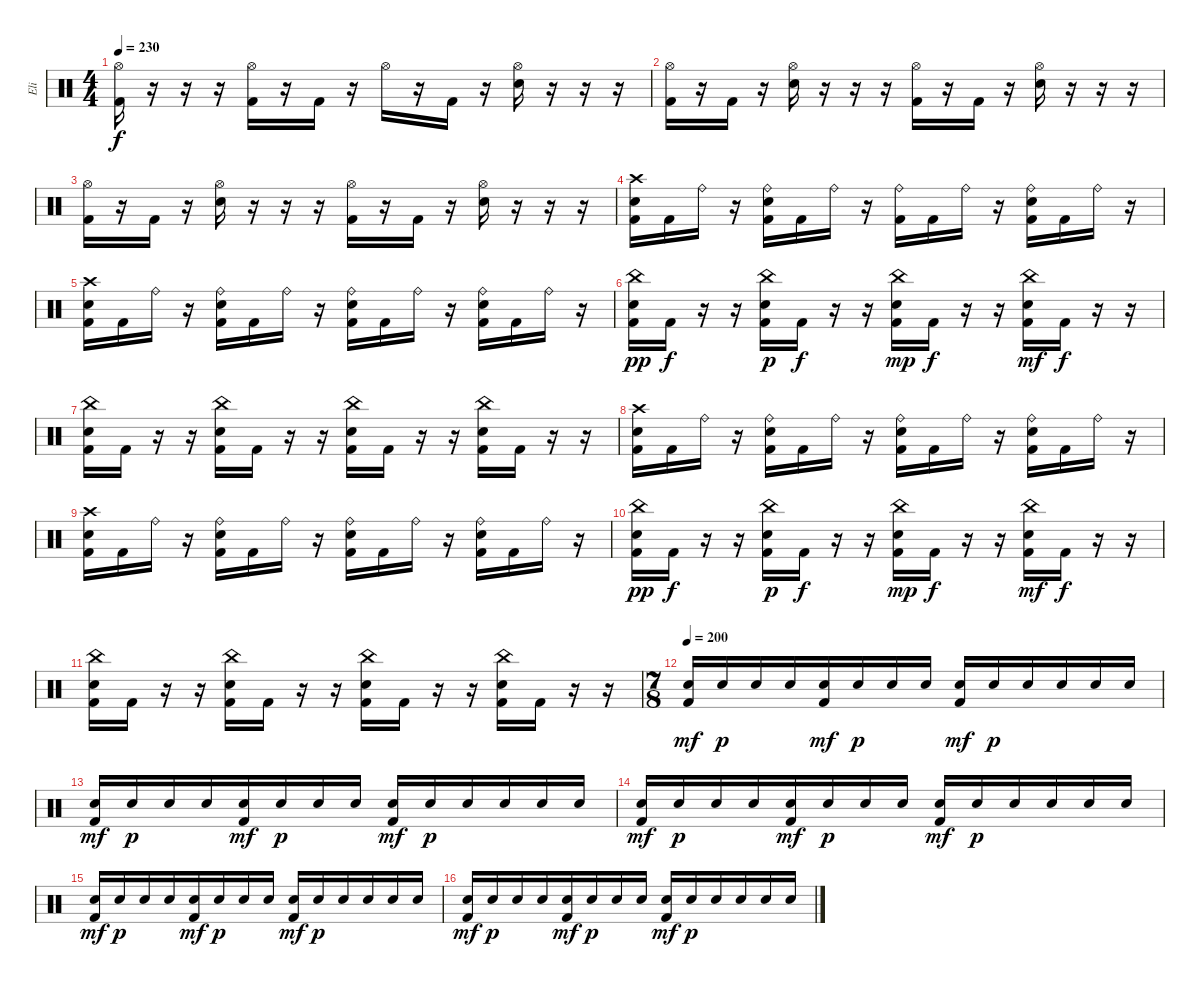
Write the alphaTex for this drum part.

\track ("Eli" "Eli") {instrument percussion}
\staff {score}
\articulation defaults
\ts (4 4)
\tempo 230
\clef neutral
\ks c
("Hi-Hat (open)" "Kick (hit) 2").16{dy f} r.16 r.16 r.16 ("Hi-Hat (open)" "Kick (hit) 2").16 r.16 "Kick (hit) 2".16 r.16 "Hi-Hat (open)".16 r.16 "Kick (hit) 2".16 r.16 ("Hi-Hat (open)" "Snare (hit) 2").16 r.16 r.16 r.16 |
("Hi-Hat (open)" "Kick (hit) 2").16 r.16 "Kick (hit) 2".16 r.16 ("Hi-Hat (open)" "Snare (hit) 2").16 r.16 r.16 r.16 ("Hi-Hat (open)" "Kick (hit) 2").16 r.16 "Kick (hit) 2".16 r.16 ("Hi-Hat (open)" "Snare (hit) 2").16 r.16 r.16 r.16 |
("Hi-Hat (open)" "Kick (hit) 2").16 r.16 "Kick (hit) 2".16 r.16 ("Hi-Hat (open)" "Snare (hit) 2").16 r.16 r.16 r.16 ("Hi-Hat (open)" "Kick (hit) 2").16 r.16 "Kick (hit) 2".16 r.16 ("Hi-Hat (open)" "Snare (hit) 2").16 r.16 r.16 r.16 |
("Crash high (hit)" "Snare (hit) 2" "Kick (hit) 2").16 "Kick (hit) 2".16 "Ride (bell)".16 r.16 ("Ride (bell)" "Snare (hit) 2" "Kick (hit) 2").16 "Kick (hit) 2".16 "Ride (bell)".16 r.16 ("Ride (bell)" "Kick (hit) 2").16 "Kick (hit) 2".16 "Ride (bell)".16 r.16 ("Ride (bell)" "Snare (hit) 2" "Kick (hit) 2").16 "Kick (hit) 2".16 "Ride (bell)".16 r.16 |
("Crash high (hit)" "Snare (hit) 2" "Kick (hit) 2").16 "Kick (hit) 2".16 "Ride (bell)".16 r.16 ("Ride (bell)" "Snare (hit) 2" "Kick (hit) 2").16 "Kick (hit) 2".16 "Ride (bell)".16 r.16 ("Ride (bell)" "Snare (hit) 2" "Kick (hit) 2").16 "Kick (hit) 2".16 "Ride (bell)".16 r.16 ("Ride (bell)" "Snare (hit) 2" "Kick (hit) 2").16 "Kick (hit) 2".16 "Ride (bell)".16 r.16 |
("China (hit)" "Snare (hit) 2" "Kick (hit) 2").16{dy pp} "Kick (hit) 2".16{dy f} r.16 r.16 ("China (hit)" "Snare (hit) 2" "Kick (hit) 2").16{dy p} "Kick (hit) 2".16{dy f} r.16 r.16 ("China (hit)" "Snare (hit) 2" "Kick (hit) 2").16{dy mp} "Kick (hit) 2".16{dy f} r.16 r.16 ("China (hit)" "Snare (hit) 2" "Kick (hit) 2").16{dy mf} "Kick (hit) 2".16{dy f} r.16 r.16 |
("China (hit)" "Snare (hit) 2" "Kick (hit) 2").16 "Kick (hit) 2".16 r.16 r.16 ("China (hit)" "Snare (hit) 2" "Kick (hit) 2").16 "Kick (hit) 2".16 r.16 r.16 ("China (hit)" "Snare (hit) 2" "Kick (hit) 2").16 "Kick (hit) 2".16 r.16 r.16 ("China (hit)" "Snare (hit) 2" "Kick (hit) 2").16 "Kick (hit) 2".16 r.16 r.16 |
("Crash high (hit)" "Snare (hit) 2" "Kick (hit) 2").16 "Kick (hit) 2".16 "Ride (bell)".16 r.16 ("Ride (bell)" "Snare (hit) 2" "Kick (hit) 2").16 "Kick (hit) 2".16 "Ride (bell)".16 r.16 ("Ride (bell)" "Snare (hit) 2" "Kick (hit) 2").16 "Kick (hit) 2".16 "Ride (bell)".16 r.16 ("Ride (bell)" "Snare (hit) 2" "Kick (hit) 2").16 "Kick (hit) 2".16 "Ride (bell)".16 r.16 |
("Crash high (hit)" "Snare (hit) 2" "Kick (hit) 2").16 "Kick (hit) 2".16 "Ride (bell)".16 r.16 ("Ride (bell)" "Snare (hit) 2" "Kick (hit) 2").16 "Kick (hit) 2".16 "Ride (bell)".16 r.16 ("Ride (bell)" "Snare (hit) 2" "Kick (hit) 2").16 "Kick (hit) 2".16 "Ride (bell)".16 r.16 ("Ride (bell)" "Snare (hit) 2" "Kick (hit) 2").16 "Kick (hit) 2".16 "Ride (bell)".16 r.16 |
("China (hit)" "Snare (hit) 2" "Kick (hit) 2").16{dy pp} "Kick (hit) 2".16{dy f} r.16 r.16 ("China (hit)" "Snare (hit) 2" "Kick (hit) 2").16{dy p} "Kick (hit) 2".16{dy f} r.16 r.16 ("China (hit)" "Snare (hit) 2" "Kick (hit) 2").16{dy mp} "Kick (hit) 2".16{dy f} r.16 r.16 ("China (hit)" "Snare (hit) 2" "Kick (hit) 2").16{dy mf} "Kick (hit) 2".16{dy f} r.16 r.16 |
("China (hit)" "Snare (hit) 2" "Kick (hit) 2").16 "Kick (hit) 2".16 r.16 r.16 ("China (hit)" "Snare (hit) 2" "Kick (hit) 2").16 "Kick (hit) 2".16 r.16 r.16 ("China (hit)" "Snare (hit) 2" "Kick (hit) 2").16 "Kick (hit) 2".16 r.16 r.16 ("China (hit)" "Snare (hit) 2" "Kick (hit) 2").16 "Kick (hit) 2".16 r.16 r.16 |
\ts (7 8)
\tempo 200
("Snare (hit) 2" "Kick (hit) 2").16{dy mf} "Snare (hit) 2".16{dy p} "Snare (hit) 2".16 "Snare (hit) 2".16 ("Snare (hit) 2" "Kick (hit) 2").16{dy mf} "Snare (hit) 2".16{dy p} "Snare (hit) 2".16 "Snare (hit) 2".16 ("Snare (hit) 2" "Kick (hit) 2").16{dy mf} "Snare (hit) 2".16{dy p} "Snare (hit) 2".16 "Snare (hit) 2".16 "Snare (hit) 2".16 "Snare (hit) 2".16 |
("Snare (hit) 2" "Kick (hit) 2").16{dy mf} "Snare (hit) 2".16{dy p} "Snare (hit) 2".16 "Snare (hit) 2".16 ("Snare (hit) 2" "Kick (hit) 2").16{dy mf} "Snare (hit) 2".16{dy p} "Snare (hit) 2".16 "Snare (hit) 2".16 ("Snare (hit) 2" "Kick (hit) 2").16{dy mf} "Snare (hit) 2".16{dy p} "Snare (hit) 2".16 "Snare (hit) 2".16 "Snare (hit) 2".16 "Snare (hit) 2".16 |
("Snare (hit) 2" "Kick (hit) 2").16{dy mf} "Snare (hit) 2".16{dy p} "Snare (hit) 2".16 "Snare (hit) 2".16 ("Snare (hit) 2" "Kick (hit) 2").16{dy mf} "Snare (hit) 2".16{dy p} "Snare (hit) 2".16 "Snare (hit) 2".16 ("Snare (hit) 2" "Kick (hit) 2").16{dy mf} "Snare (hit) 2".16{dy p} "Snare (hit) 2".16 "Snare (hit) 2".16 "Snare (hit) 2".16 "Snare (hit) 2".16 |
("Snare (hit) 2" "Kick (hit) 2").16{dy mf} "Snare (hit) 2".16{dy p} "Snare (hit) 2".16 "Snare (hit) 2".16 ("Snare (hit) 2" "Kick (hit) 2").16{dy mf} "Snare (hit) 2".16{dy p} "Snare (hit) 2".16 "Snare (hit) 2".16 ("Snare (hit) 2" "Kick (hit) 2").16{dy mf} "Snare (hit) 2".16{dy p} "Snare (hit) 2".16 "Snare (hit) 2".16 "Snare (hit) 2".16 "Snare (hit) 2".16 |
("Snare (hit) 2" "Kick (hit) 2").16{dy mf} "Snare (hit) 2".16{dy p} "Snare (hit) 2".16 "Snare (hit) 2".16 ("Snare (hit) 2" "Kick (hit) 2").16{dy mf} "Snare (hit) 2".16{dy p} "Snare (hit) 2".16 "Snare (hit) 2".16 ("Snare (hit) 2" "Kick (hit) 2").16{dy mf} "Snare (hit) 2".16{dy p} "Snare (hit) 2".16 "Snare (hit) 2".16 "Snare (hit) 2".16 "Snare (hit) 2".16
